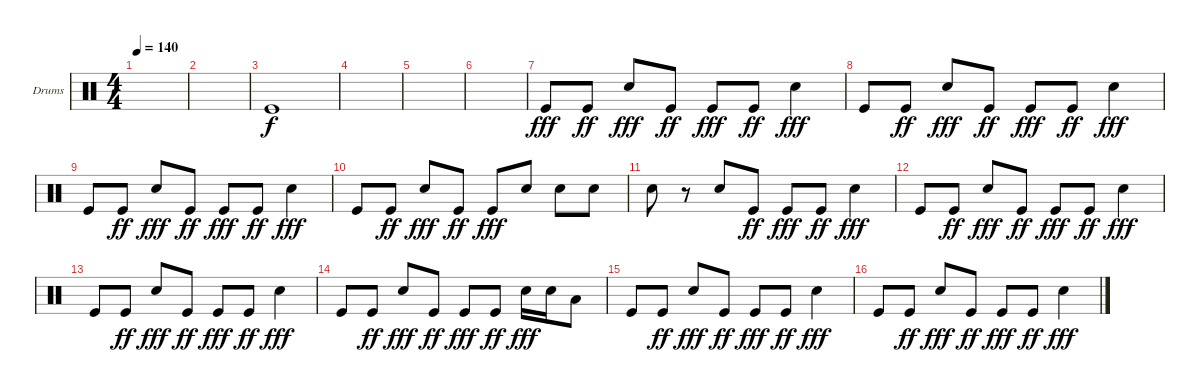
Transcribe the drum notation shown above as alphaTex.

\defaultSystemsLayout 4
\bracketExtendMode groupsimilarinstruments
\firstSystemTrackNameOrientation horizontal
\otherSystemsTrackNameOrientation horizontal
\track ("Helders" "Drums") {instrument percussion}
\staff {score}
\articulation defaults
\ts (4 4)
\tempo 140
\clef neutral
\ks c
|
|
"Kick (hit)".1 |
|
|
|
"Kick (hit)".8{dy fff} "Kick (hit)".8{dy ff} "Snare (hit) 2".8{dy fff} "Kick (hit)".8{dy ff} "Kick (hit)".8{dy fff} "Kick (hit)".8{dy ff} "Snare (hit) 2".4{dy fff} |
"Kick (hit)".8 "Kick (hit)".8{dy ff} "Snare (hit) 2".8{dy fff} "Kick (hit)".8{dy ff} "Kick (hit)".8{dy fff} "Kick (hit)".8{dy ff} "Snare (hit) 2".4{dy fff} |
"Kick (hit)".8 "Kick (hit)".8{dy ff} "Snare (hit) 2".8{dy fff} "Kick (hit)".8{dy ff} "Kick (hit)".8{dy fff} "Kick (hit)".8{dy ff} "Snare (hit) 2".4{dy fff} |
"Kick (hit)".8 "Kick (hit)".8{dy ff} "Snare (hit) 2".8{dy fff} "Kick (hit)".8{dy ff} "Kick (hit)".8{dy fff} "Snare (hit) 2".8 "Snare (hit) 2".8 "Snare (hit) 2".8 |
"Snare (hit) 2".8 r.8 "Snare (hit) 2".8 "Kick (hit)".8{dy ff} "Kick (hit)".8{dy fff} "Kick (hit)".8{dy ff} "Snare (hit) 2".4{dy fff} |
"Kick (hit)".8 "Kick (hit)".8{dy ff} "Snare (hit) 2".8{dy fff} "Kick (hit)".8{dy ff} "Kick (hit)".8{dy fff} "Kick (hit)".8{dy ff} "Snare (hit) 2".4{dy fff} |
"Kick (hit)".8 "Kick (hit)".8{dy ff} "Snare (hit) 2".8{dy fff} "Kick (hit)".8{dy ff} "Kick (hit)".8{dy fff} "Kick (hit)".8{dy ff} "Snare (hit) 2".4{dy fff} |
"Kick (hit)".8 "Kick (hit)".8{dy ff} "Snare (hit) 2".8{dy fff} "Kick (hit)".8{dy ff} "Kick (hit)".8{dy fff} "Kick (hit)".8{dy ff} "Snare (hit) 2".16{dy fff} "Snare (hit) 2".16 "Low Tom (hit)".8 |
"Kick (hit)".8 "Kick (hit)".8{dy ff} "Snare (hit) 2".8{dy fff} "Kick (hit)".8{dy ff} "Kick (hit)".8{dy fff} "Kick (hit)".8{dy ff} "Snare (hit) 2".4{dy fff} |
"Kick (hit)".8 "Kick (hit)".8{dy ff} "Snare (hit) 2".8{dy fff} "Kick (hit)".8{dy ff} "Kick (hit)".8{dy fff} "Kick (hit)".8{dy ff} "Snare (hit) 2".4{dy fff}
